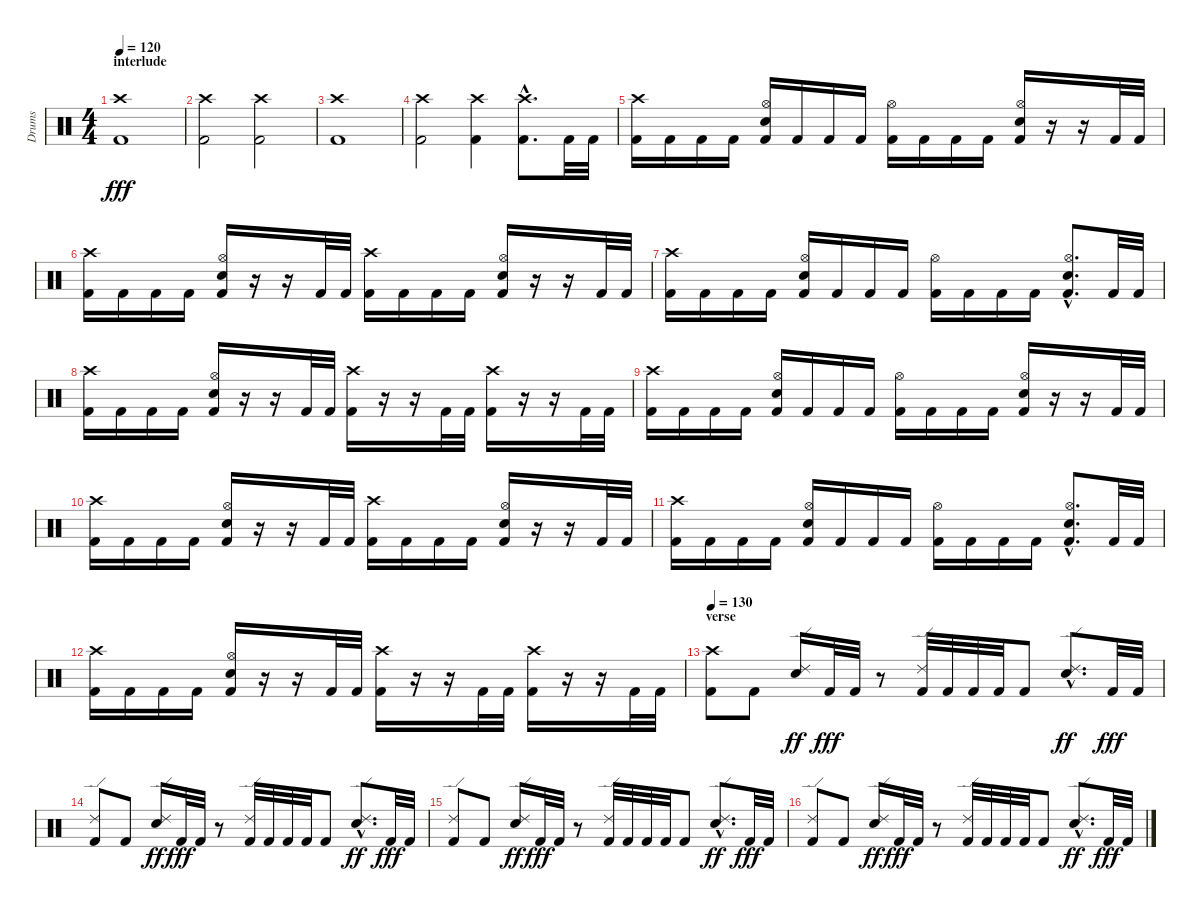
\track ("Drums" "Drums") {instrument percussion}
\staff {score}
\articulation defaults
\ts (4 4)
\section ("" "interlude")
\tempo 120
\clef neutral
\ks c
("Crash high (hit)" "Kick (hit) 2").1{dy fff} |
("Crash high (hit)" "Kick (hit) 2").2 ("Crash high (hit)" "Kick (hit) 2").2 |
("Crash high (hit)" "Kick (hit) 2").1 |
("Crash high (hit)" "Kick (hit) 2").2 ("Crash high (hit)" "Kick (hit) 2").4 ("Crash high (hit)"{hac} "Kick (hit) 2"{hac}).8{d} "Kick (hit) 2".32 "Kick (hit) 2".32 |
("Crash high (hit)" "Kick (hit) 2").16 "Kick (hit) 2".16 "Kick (hit) 2".16 "Kick (hit) 2".16 ("Hi-Hat (open)" "Snare (hit) 2" "Kick (hit) 2").16 "Kick (hit) 2".16 "Kick (hit) 2".16 "Kick (hit) 2".16 ("Hi-Hat (open)" "Kick (hit) 2").16 "Kick (hit) 2".16 "Kick (hit) 2".16 "Kick (hit) 2".16 ("Hi-Hat (open)" "Snare (hit) 2" "Kick (hit) 2").16 r.16 r.16 "Kick (hit) 2".32 "Kick (hit) 2".32 |
("Crash high (hit)" "Kick (hit) 2").16 "Kick (hit) 2".16 "Kick (hit) 2".16 "Kick (hit) 2".16 ("Hi-Hat (open)" "Snare (hit) 2" "Kick (hit) 2").16 r.16 r.16 "Kick (hit) 2".32 "Kick (hit) 2".32 ("Crash high (hit)" "Kick (hit) 2").16 "Kick (hit) 2".16 "Kick (hit) 2".16 "Kick (hit) 2".16 ("Hi-Hat (open)" "Snare (hit) 2" "Kick (hit) 2").16 r.16 r.16 "Kick (hit) 2".32 "Kick (hit) 2".32 |
("Crash high (hit)" "Kick (hit) 2").16 "Kick (hit) 2".16 "Kick (hit) 2".16 "Kick (hit) 2".16 ("Hi-Hat (open)" "Snare (hit) 2" "Kick (hit) 2").16 "Kick (hit) 2".16 "Kick (hit) 2".16 "Kick (hit) 2".16 ("Hi-Hat (open)" "Kick (hit) 2").16 "Kick (hit) 2".16 "Kick (hit) 2".16 "Kick (hit) 2".16 ("Hi-Hat (open)"{hac} "Snare (hit) 2"{hac} "Kick (hit) 2"{hac}).8{d} "Kick (hit) 2".32 "Kick (hit) 2".32 |
("Crash high (hit)" "Kick (hit) 2").16 "Kick (hit) 2".16 "Kick (hit) 2".16 "Kick (hit) 2".16 ("Hi-Hat (open)" "Snare (hit) 2" "Kick (hit) 2").16 r.16 r.16 "Kick (hit) 2".32 "Kick (hit) 2".32 ("Crash high (hit)" "Kick (hit) 2").16 r.16 r.16 "Kick (hit) 2".32 "Kick (hit) 2".32 ("Crash high (hit)" "Kick (hit) 2").16 r.16 r.16 "Kick (hit) 2".32 "Kick (hit) 2".32 |
("Crash high (hit)" "Kick (hit) 2").16 "Kick (hit) 2".16 "Kick (hit) 2".16 "Kick (hit) 2".16 ("Hi-Hat (open)" "Snare (hit) 2" "Kick (hit) 2").16 "Kick (hit) 2".16 "Kick (hit) 2".16 "Kick (hit) 2".16 ("Hi-Hat (open)" "Kick (hit) 2").16 "Kick (hit) 2".16 "Kick (hit) 2".16 "Kick (hit) 2".16 ("Hi-Hat (open)" "Snare (hit) 2" "Kick (hit) 2").16 r.16 r.16 "Kick (hit) 2".32 "Kick (hit) 2".32 |
("Crash high (hit)" "Kick (hit) 2").16 "Kick (hit) 2".16 "Kick (hit) 2".16 "Kick (hit) 2".16 ("Hi-Hat (open)" "Snare (hit) 2" "Kick (hit) 2").16 r.16 r.16 "Kick (hit) 2".32 "Kick (hit) 2".32 ("Crash high (hit)" "Kick (hit) 2").16 "Kick (hit) 2".16 "Kick (hit) 2".16 "Kick (hit) 2".16 ("Hi-Hat (open)" "Snare (hit) 2" "Kick (hit) 2").16 r.16 r.16 "Kick (hit) 2".32 "Kick (hit) 2".32 |
("Crash high (hit)" "Kick (hit) 2").16 "Kick (hit) 2".16 "Kick (hit) 2".16 "Kick (hit) 2".16 ("Hi-Hat (open)" "Snare (hit) 2" "Kick (hit) 2").16 "Kick (hit) 2".16 "Kick (hit) 2".16 "Kick (hit) 2".16 ("Hi-Hat (open)" "Kick (hit) 2").16 "Kick (hit) 2".16 "Kick (hit) 2".16 "Kick (hit) 2".16 ("Hi-Hat (open)"{hac} "Snare (hit) 2"{hac} "Kick (hit) 2"{hac}).8{d} "Kick (hit) 2".32 "Kick (hit) 2".32 |
("Crash high (hit)" "Kick (hit) 2").16 "Kick (hit) 2".16 "Kick (hit) 2".16 "Kick (hit) 2".16 ("Hi-Hat (open)" "Snare (hit) 2" "Kick (hit) 2").16 r.16 r.16 "Kick (hit) 2".32 "Kick (hit) 2".32 ("Crash high (hit)" "Kick (hit) 2").16 r.16 r.16 "Kick (hit) 2".32 "Kick (hit) 2".32 ("Crash high (hit)" "Kick (hit) 2").16 r.16 r.16 "Kick (hit) 2".32 "Kick (hit) 2".32 |
\section ("" "verse")
\tempo 130
("Crash high (hit)" "Kick (hit) 2").8 "Kick (hit) 2".8 ("Ride (edge) 2" "Snare (hit) 2").16{dy ff} "Kick (hit) 2".32{dy fff} "Kick (hit) 2".32 r.8 ("Ride (edge) 2" "Kick (hit) 2").32 "Kick (hit) 2".32 "Kick (hit) 2".32 "Kick (hit) 2".32 "Kick (hit) 2".8 ("Ride (edge) 2"{hac} "Snare (hit) 2"{hac}).8{d dy ff} "Kick (hit) 2".32{dy fff} "Kick (hit) 2".32 |
("Ride (edge) 2" "Kick (hit) 2").8 "Kick (hit) 2".8 ("Ride (edge) 2" "Snare (hit) 2").16{dy ff} "Kick (hit) 2".32{dy fff} "Kick (hit) 2".32 r.8 ("Ride (edge) 2" "Kick (hit) 2").32 "Kick (hit) 2".32 "Kick (hit) 2".32 "Kick (hit) 2".32 "Kick (hit) 2".8 ("Ride (edge) 2"{hac} "Snare (hit) 2"{hac}).8{d dy ff} "Kick (hit) 2".32{dy fff} "Kick (hit) 2".32 |
("Ride (edge) 2" "Kick (hit) 2").8 "Kick (hit) 2".8 ("Ride (edge) 2" "Snare (hit) 2").16{dy ff} "Kick (hit) 2".32{dy fff} "Kick (hit) 2".32 r.8 ("Ride (edge) 2" "Kick (hit) 2").32 "Kick (hit) 2".32 "Kick (hit) 2".32 "Kick (hit) 2".32 "Kick (hit) 2".8 ("Ride (edge) 2"{hac} "Snare (hit) 2"{hac}).8{d dy ff} "Kick (hit) 2".32{dy fff} "Kick (hit) 2".32 |
("Ride (edge) 2" "Kick (hit) 2").8 "Kick (hit) 2".8 ("Ride (edge) 2" "Snare (hit) 2").16{dy ff} "Kick (hit) 2".32{dy fff} "Kick (hit) 2".32 r.8 ("Ride (edge) 2" "Kick (hit) 2").32 "Kick (hit) 2".32 "Kick (hit) 2".32 "Kick (hit) 2".32 "Kick (hit) 2".8 ("Ride (edge) 2"{hac} "Snare (hit) 2"{hac}).8{d dy ff} "Kick (hit) 2".32{dy fff} "Kick (hit) 2".32
